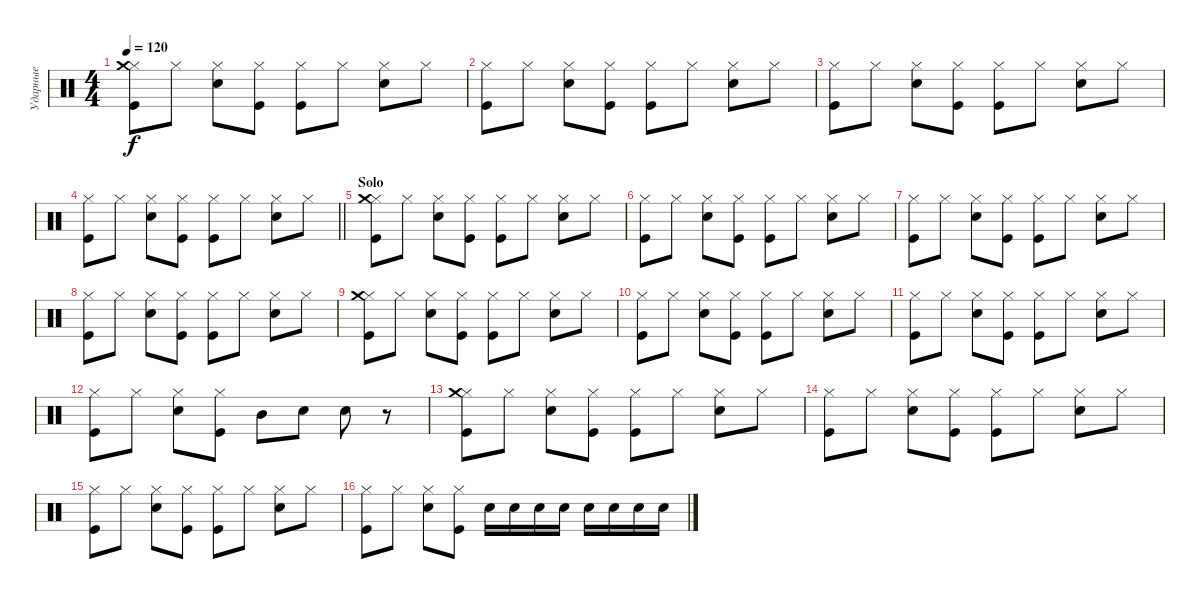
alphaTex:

\track ("Ударные" "Ударные") {instrument percussion}
\staff {score}
\articulation defaults
\ts (4 4)
\tempo 120
\clef neutral
\ks c
("Kick (hit)" "Hi-Hat (closed)" "Crash medium (hit)").8{dy f} "Hi-Hat (closed)".8 ("Snare (hit) 2" "Hi-Hat (closed)").8 ("Kick (hit)" "Hi-Hat (closed)").8 ("Hi-Hat (closed)" "Kick (hit)").8 "Hi-Hat (closed)".8 ("Snare (hit) 2" "Hi-Hat (closed)").8 "Hi-Hat (closed)".8 |
("Kick (hit)" "Hi-Hat (closed)").8 "Hi-Hat (closed)".8 ("Snare (hit) 2" "Hi-Hat (closed)").8 ("Kick (hit)" "Hi-Hat (closed)").8 ("Hi-Hat (closed)" "Kick (hit)").8 "Hi-Hat (closed)".8 ("Snare (hit) 2" "Hi-Hat (closed)").8 "Hi-Hat (closed)".8 |
("Kick (hit)" "Hi-Hat (closed)").8 "Hi-Hat (closed)".8 ("Snare (hit) 2" "Hi-Hat (closed)").8 ("Kick (hit)" "Hi-Hat (closed)").8 ("Hi-Hat (closed)" "Kick (hit)").8 "Hi-Hat (closed)".8 ("Snare (hit) 2" "Hi-Hat (closed)").8 "Hi-Hat (closed)".8 |
\barLineRight lightlight
("Kick (hit)" "Hi-Hat (closed)").8 "Hi-Hat (closed)".8 ("Snare (hit) 2" "Hi-Hat (closed)").8 ("Kick (hit)" "Hi-Hat (closed)").8 ("Hi-Hat (closed)" "Kick (hit)").8 "Hi-Hat (closed)".8 ("Snare (hit) 2" "Hi-Hat (closed)").8 "Hi-Hat (closed)".8 |
\section ("" "Solo")
("Kick (hit)" "Hi-Hat (closed)" "Crash medium (hit)").8 "Hi-Hat (closed)".8 ("Snare (hit) 2" "Hi-Hat (closed)").8 ("Kick (hit)" "Hi-Hat (closed)").8 ("Hi-Hat (closed)" "Kick (hit)").8 "Hi-Hat (closed)".8 ("Snare (hit) 2" "Hi-Hat (closed)").8 "Hi-Hat (closed)".8 |
("Kick (hit)" "Hi-Hat (closed)").8 "Hi-Hat (closed)".8 ("Snare (hit) 2" "Hi-Hat (closed)").8 ("Kick (hit)" "Hi-Hat (closed)").8 ("Hi-Hat (closed)" "Kick (hit)").8 "Hi-Hat (closed)".8 ("Snare (hit) 2" "Hi-Hat (closed)").8 "Hi-Hat (closed)".8 |
("Kick (hit)" "Hi-Hat (closed)").8 "Hi-Hat (closed)".8 ("Snare (hit) 2" "Hi-Hat (closed)").8 ("Kick (hit)" "Hi-Hat (closed)").8 ("Hi-Hat (closed)" "Kick (hit)").8 "Hi-Hat (closed)".8 ("Snare (hit) 2" "Hi-Hat (closed)").8 "Hi-Hat (closed)".8 |
("Kick (hit)" "Hi-Hat (closed)").8 "Hi-Hat (closed)".8 ("Snare (hit) 2" "Hi-Hat (closed)").8 ("Kick (hit)" "Hi-Hat (closed)").8 ("Hi-Hat (closed)" "Kick (hit)").8 "Hi-Hat (closed)".8 ("Snare (hit) 2" "Hi-Hat (closed)").8 "Hi-Hat (closed)".8 |
("Kick (hit)" "Hi-Hat (closed)" "Crash medium (hit)").8 "Hi-Hat (closed)".8 ("Snare (hit) 2" "Hi-Hat (closed)").8 ("Kick (hit)" "Hi-Hat (closed)").8 ("Hi-Hat (closed)" "Kick (hit)").8 "Hi-Hat (closed)".8 ("Snare (hit) 2" "Hi-Hat (closed)").8 "Hi-Hat (closed)".8 |
("Kick (hit)" "Hi-Hat (closed)").8 "Hi-Hat (closed)".8 ("Snare (hit) 2" "Hi-Hat (closed)").8 ("Kick (hit)" "Hi-Hat (closed)").8 ("Hi-Hat (closed)" "Kick (hit)").8 "Hi-Hat (closed)".8 ("Snare (hit) 2" "Hi-Hat (closed)").8 "Hi-Hat (closed)".8 |
("Kick (hit)" "Hi-Hat (closed)").8 "Hi-Hat (closed)".8 ("Snare (hit) 2" "Hi-Hat (closed)").8 ("Kick (hit)" "Hi-Hat (closed)").8 ("Hi-Hat (closed)" "Kick (hit)").8 "Hi-Hat (closed)".8 ("Snare (hit) 2" "Hi-Hat (closed)").8 "Hi-Hat (closed)".8 |
("Kick (hit)" "Hi-Hat (closed)").8 "Hi-Hat (closed)".8 ("Snare (hit) 2" "Hi-Hat (closed)").8 ("Kick (hit)" "Hi-Hat (closed)").8 "Mid Tom (hit)".8 "Snare (hit) 2".8 "Snare (hit) 2".8 r.8 |
("Kick (hit)" "Hi-Hat (closed)" "Crash medium (hit)").8 "Hi-Hat (closed)".8 ("Snare (hit) 2" "Hi-Hat (closed)").8 ("Kick (hit)" "Hi-Hat (closed)").8 ("Hi-Hat (closed)" "Kick (hit)").8 "Hi-Hat (closed)".8 ("Snare (hit) 2" "Hi-Hat (closed)").8 "Hi-Hat (closed)".8 |
("Kick (hit)" "Hi-Hat (closed)").8 "Hi-Hat (closed)".8 ("Snare (hit) 2" "Hi-Hat (closed)").8 ("Kick (hit)" "Hi-Hat (closed)").8 ("Hi-Hat (closed)" "Kick (hit)").8 "Hi-Hat (closed)".8 ("Snare (hit) 2" "Hi-Hat (closed)").8 "Hi-Hat (closed)".8 |
("Kick (hit)" "Hi-Hat (closed)").8 "Hi-Hat (closed)".8 ("Snare (hit) 2" "Hi-Hat (closed)").8 ("Kick (hit)" "Hi-Hat (closed)").8 ("Hi-Hat (closed)" "Kick (hit)").8 "Hi-Hat (closed)".8 ("Snare (hit) 2" "Hi-Hat (closed)").8 "Hi-Hat (closed)".8 |
("Kick (hit)" "Hi-Hat (closed)").8 "Hi-Hat (closed)".8 ("Snare (hit) 2" "Hi-Hat (closed)").8 ("Kick (hit)" "Hi-Hat (closed)").8 "Snare (hit) 2".16 "Snare (hit) 2".16 "Snare (hit) 2".16 "Snare (hit) 2".16 "Electric Snare (hit)".16 "Electric Snare (hit)".16 "Electric Snare (hit)".16 "Electric Snare (hit)".16
